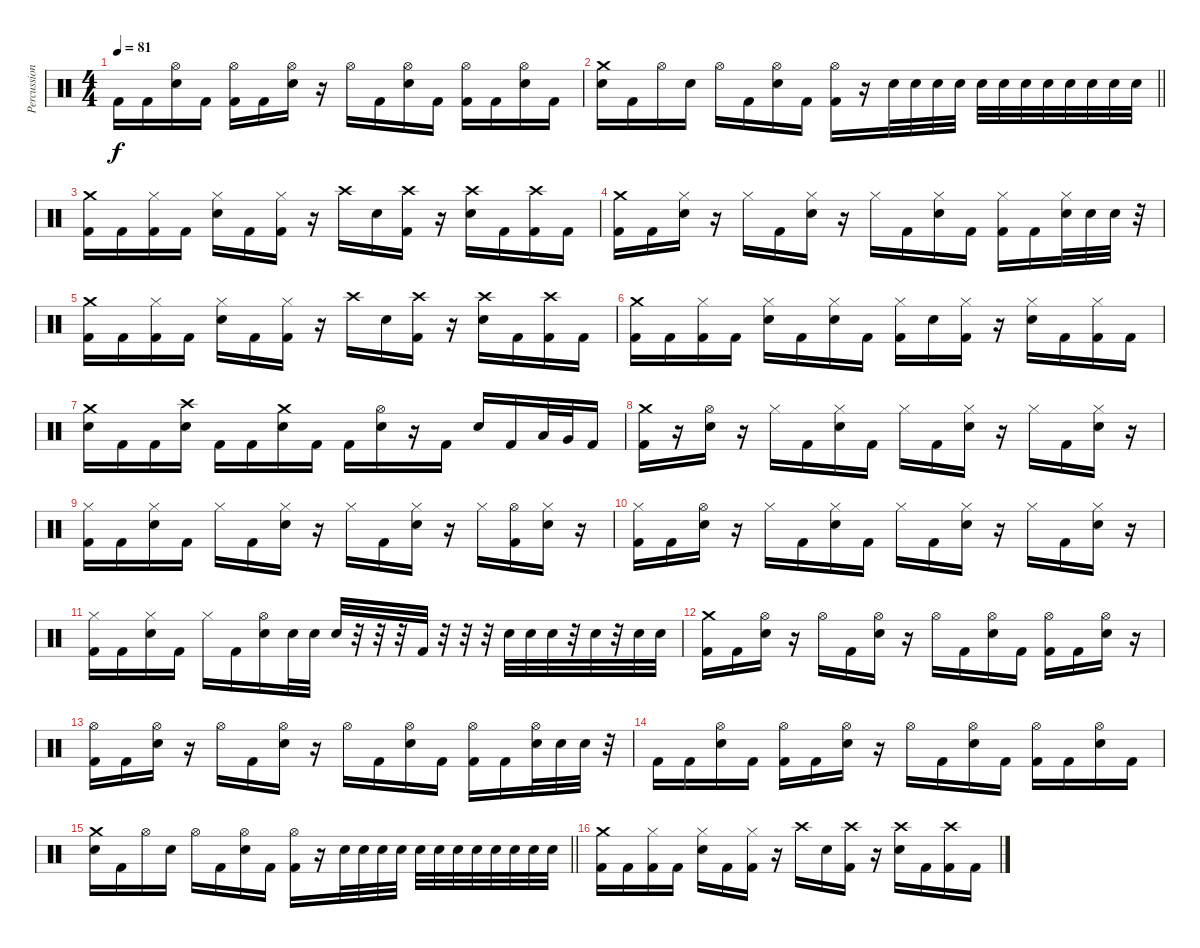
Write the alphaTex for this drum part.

\track ("Percussions" "Percussion") {instrument percussion}
\staff {score}
\articulation defaults
\ts (4 4)
\tempo 81
\clef neutral
\ks c "Kick (hit) 2".16{dy f} "Kick (hit) 2".16
("Hi-Hat (open)" "Electric Snare (hit)").16 "Kick (hit) 2".16 ("Hi-Hat (open)" "Kick (hit) 2").16 "Kick (hit) 2".16 ("Hi-Hat (open)" "Electric Snare (hit)").16 r.16 "Hi-Hat (open)".16 "Kick (hit) 2".16 ("Hi-Hat (open)" "Electric Snare (hit)").16 "Kick (hit) 2".16 ("Hi-Hat (open)" "Kick (hit) 2").16 "Kick (hit) 2".16 ("Hi-Hat (open)" "Electric Snare (hit)").16 "Kick (hit) 2".16 |
\barLineRight lightlight
("Crash medium (hit)" "Electric Snare (hit)").16 "Kick (hit) 2".16 "Hi-Hat (open)".16 "Electric Snare (hit)".16 "Hi-Hat (open)".16 "Kick (hit) 2".16 ("Hi-Hat (open)" "Electric Snare (hit)").16 "Kick (hit) 2".16 ("Hi-Hat (open)" "Kick (hit) 2").16 r.16 "Electric Snare (hit)".32 "Electric Snare (hit)".32 "Electric Snare (hit)".32 "Electric Snare (hit)".32 "Electric Snare (hit)".32 "Electric Snare (hit)".32 "Electric Snare (hit)".32 "Electric Snare (hit)".32 "Electric Snare (hit)".32 "Electric Snare (hit)".32 "Electric Snare (hit)".32 "Electric Snare (hit)".32 |
("Crash medium (hit)" "Kick (hit) 2").16 "Kick (hit) 2".16 ("Hi-Hat (closed)" "Kick (hit) 2").16 "Kick (hit) 2".16 ("Hi-Hat (closed)" "Electric Snare (hit)").16 "Kick (hit) 2".16 ("Hi-Hat (closed)" "Kick (hit) 2").16 r.16 "Crash high (hit)".16 "Electric Snare (hit)".16 ("Crash high (hit)" "Kick (hit) 2").16 r.16 ("Crash high (hit)" "Electric Snare (hit)").16 "Kick (hit) 2".16 ("Crash high (hit)" "Kick (hit) 2").16 "Kick (hit) 2".16 |
("Crash medium (hit)" "Kick (hit) 2").16 "Kick (hit) 2".16 ("Hi-Hat (closed)" "Electric Snare (hit)").16 r.16 "Hi-Hat (closed)".16 "Kick (hit) 2".16 ("Hi-Hat (closed)" "Electric Snare (hit)").16 r.16 "Hi-Hat (closed)".16 "Kick (hit) 2".16 ("Hi-Hat (closed)" "Electric Snare (hit)").16 "Kick (hit) 2".16 ("Hi-Hat (closed)" "Kick (hit) 2").16 "Kick (hit) 2".16 ("Hi-Hat (closed)" "Electric Snare (hit)").32 "Electric Snare (hit)".32 "Electric Snare (hit)".32 r.32 |
("Crash medium (hit)" "Kick (hit) 2").16 "Kick (hit) 2".16 ("Hi-Hat (closed)" "Kick (hit) 2").16 "Kick (hit) 2".16 ("Hi-Hat (closed)" "Electric Snare (hit)").16 "Kick (hit) 2".16 ("Hi-Hat (closed)" "Kick (hit) 2").16 r.16 "Crash high (hit)".16 "Electric Snare (hit)".16 ("Crash high (hit)" "Kick (hit) 2").16 r.16 ("Crash high (hit)" "Electric Snare (hit)").16 "Kick (hit) 2".16 ("Crash high (hit)" "Kick (hit) 2").16 "Kick (hit) 2".16 |
("Crash medium (hit)" "Kick (hit) 2").16 "Kick (hit) 2".16 ("Hi-Hat (closed)" "Kick (hit) 2").16 "Kick (hit) 2".16 ("Hi-Hat (closed)" "Electric Snare (hit)").16 "Kick (hit) 2".16 ("Hi-Hat (closed)" "Electric Snare (hit)").16 "Kick (hit) 2".16 ("Hi-Hat (closed)" "Kick (hit) 2").16 "Electric Snare (hit)".16 ("Hi-Hat (closed)" "Kick (hit) 2").16 r.16 ("Hi-Hat (closed)" "Electric Snare (hit)").16 "Kick (hit) 2".16 ("Hi-Hat (closed)" "Kick (hit) 2").16 "Kick (hit) 2".16 |
("Crash medium (hit)" "Electric Snare (hit)").16 "Kick (hit) 2".16 "Kick (hit) 2".16 ("Crash high (hit)" "Electric Snare (hit)").16 "Kick (hit) 2".16 "Kick (hit) 2".16 ("Crash medium (hit)" "Electric Snare (hit)").16 "Kick (hit) 2".16 "Kick (hit) 2".16 ("Hi-Hat (open)" "Electric Snare (hit)").16 r.16 "Kick (hit) 2".16 "Electric Snare (hit)".16 "Kick (hit) 2".16 "Low Floor Tom (hit)".32 "Very Low Tom (hit)".32 "Kick (hit) 2".16 |
("Crash medium (hit)" "Kick (hit) 2").16 r.16 ("Hi-Hat (open)" "Electric Snare (hit)").16 r.16 "Hi-Hat (closed)".16 "Kick (hit) 2".16 ("Hi-Hat (closed)" "Electric Snare (hit)").16 "Kick (hit) 2".16 "Hi-Hat (closed)".16 "Kick (hit) 2".16 ("Hi-Hat (closed)" "Electric Snare (hit)").16 r.16 "Hi-Hat (closed)".16 "Kick (hit) 2".16 ("Hi-Hat (closed)" "Electric Snare (hit)").16 r.16 |
("Hi-Hat (closed)" "Kick (hit) 2").16 "Kick (hit) 2".16 ("Hi-Hat (closed)" "Electric Snare (hit)").16 "Kick (hit) 2".16 "Hi-Hat (closed)".16 "Kick (hit) 2".16 ("Hi-Hat (closed)" "Electric Snare (hit)").16 r.16 "Hi-Hat (closed)".16 "Kick (hit) 2".16 ("Hi-Hat (closed)" "Electric Snare (hit)").16 r.16 "Hi-Hat (closed)".16 ("Hi-Hat (open)" "Kick (hit) 2").16 ("Hi-Hat (closed)" "Electric Snare (hit)").16 r.16 |
("Hi-Hat (closed)" "Kick (hit) 2").16 "Kick (hit) 2".16 ("Hi-Hat (open)" "Electric Snare (hit)").16 r.16 "Hi-Hat (closed)".16 "Kick (hit) 2".16 ("Hi-Hat (closed)" "Electric Snare (hit)").16 "Kick (hit) 2".16 "Hi-Hat (closed)".16 "Kick (hit) 2".16 ("Hi-Hat (closed)" "Electric Snare (hit)").16 r.16 "Hi-Hat (closed)".16 "Kick (hit) 2".16 ("Hi-Hat (closed)" "Electric Snare (hit)").16 r.16 |
("Hi-Hat (closed)" "Kick (hit) 2").16 "Kick (hit) 2".16 ("Hi-Hat (closed)" "Electric Snare (hit)").16 "Kick (hit) 2".16 "Hi-Hat (closed)".16 "Kick (hit) 2".16 ("Hi-Hat (open)" "Electric Snare (hit)").16 "Electric Snare (hit)".32 "Electric Snare (hit)".32 "Electric Snare (hit)".32 r.32 r.32 r.32 "Kick (hit) 2".32 r.32 r.32 r.32 "Electric Snare (hit)".32 "Electric Snare (hit)".32 "Electric Snare (hit)".32 r.32 "Electric Snare (hit)".32 r.32 "Electric Snare (hit)".32 "Electric Snare (hit)".32 |
("Crash medium (hit)" "Kick (hit) 2").16 "Kick (hit) 2".16 ("Hi-Hat (open)" "Electric Snare (hit)").16 r.16 "Hi-Hat (open)".16 "Kick (hit) 2".16 ("Hi-Hat (open)" "Electric Snare (hit)").16 r.16 "Hi-Hat (open)".16 "Kick (hit) 2".16 ("Hi-Hat (open)" "Electric Snare (hit)").16 "Kick (hit) 2".16 ("Hi-Hat (open)" "Kick (hit) 2").16 "Kick (hit) 2".16 ("Hi-Hat (open)" "Electric Snare (hit)").16 r.16 |
("Hi-Hat (open)" "Kick (hit) 2").16 "Kick (hit) 2".16 ("Hi-Hat (open)" "Electric Snare (hit)").16 r.16 "Hi-Hat (open)".16 "Kick (hit) 2".16 ("Hi-Hat (open)" "Electric Snare (hit)").16 r.16 "Hi-Hat (open)".16 "Kick (hit) 2".16 ("Hi-Hat (open)" "Electric Snare (hit)").16 "Kick (hit) 2".16 ("Hi-Hat (open)" "Kick (hit) 2").16 "Kick (hit) 2".16 ("Hi-Hat (open)" "Electric Snare (hit)").32 "Electric Snare (hit)".32 "Electric Snare (hit)".32 r.32 |
"Kick (hit) 2".16 "Kick (hit) 2".16 ("Hi-Hat (open)" "Electric Snare (hit)").16 "Kick (hit) 2".16 ("Hi-Hat (open)" "Kick (hit) 2").16 "Kick (hit) 2".16 ("Hi-Hat (open)" "Electric Snare (hit)").16 r.16 "Hi-Hat (open)".16 "Kick (hit) 2".16 ("Hi-Hat (open)" "Electric Snare (hit)").16 "Kick (hit) 2".16 ("Hi-Hat (open)" "Kick (hit) 2").16 "Kick (hit) 2".16 ("Hi-Hat (open)" "Electric Snare (hit)").16 "Kick (hit) 2".16 |
\barLineRight lightlight
("Crash medium (hit)" "Electric Snare (hit)").16 "Kick (hit) 2".16 "Hi-Hat (open)".16 "Electric Snare (hit)".16 "Hi-Hat (open)".16 "Kick (hit) 2".16 ("Hi-Hat (open)" "Electric Snare (hit)").16 "Kick (hit) 2".16 ("Hi-Hat (open)" "Kick (hit) 2").16 r.16 "Electric Snare (hit)".32 "Electric Snare (hit)".32 "Electric Snare (hit)".32 "Electric Snare (hit)".32 "Electric Snare (hit)".32 "Electric Snare (hit)".32 "Electric Snare (hit)".32 "Electric Snare (hit)".32 "Electric Snare (hit)".32 "Electric Snare (hit)".32 "Electric Snare (hit)".32 "Electric Snare (hit)".32 |
("Crash medium (hit)" "Kick (hit) 2").16 "Kick (hit) 2".16 ("Hi-Hat (closed)" "Kick (hit) 2").16 "Kick (hit) 2".16 ("Hi-Hat (closed)" "Electric Snare (hit)").16 "Kick (hit) 2".16 ("Hi-Hat (closed)" "Kick (hit) 2").16 r.16 "Crash high (hit)".16 "Electric Snare (hit)".16 ("Crash high (hit)" "Kick (hit) 2").16 r.16 ("Crash high (hit)" "Electric Snare (hit)").16 "Kick (hit) 2".16 ("Crash high (hit)" "Kick (hit) 2").16 "Kick (hit) 2".16
